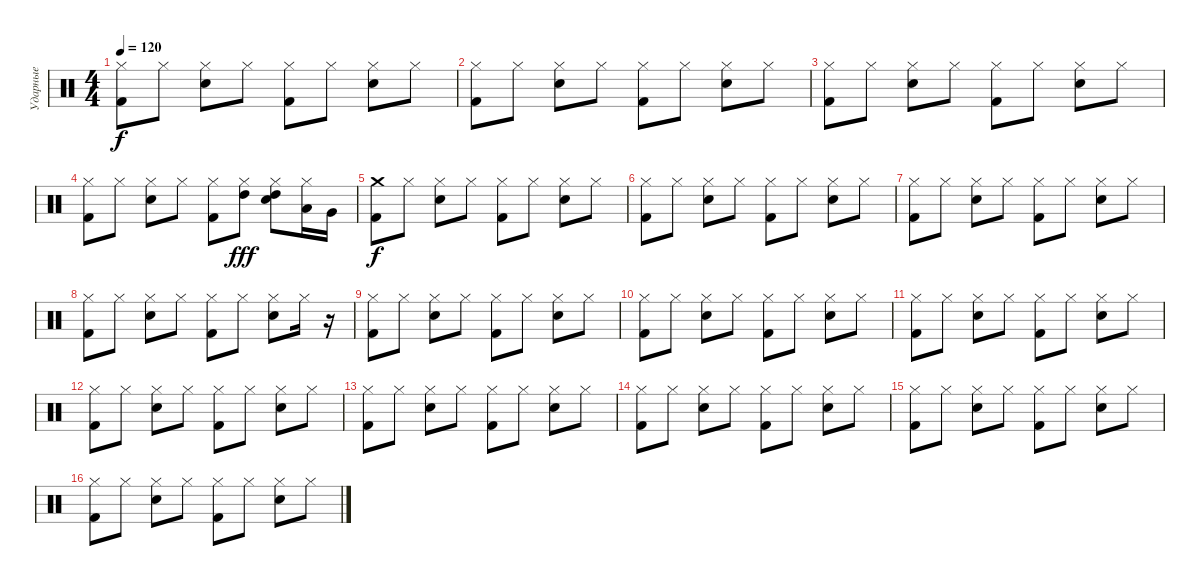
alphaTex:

\track ("Ударные" "Ударные") {instrument percussion}
\staff {score}
\articulation defaults
\ts (4 4)
\tempo 120
\clef neutral
\ks c
("Kick (hit) 2" "Hi-Hat (closed)").8{dy f} "Hi-Hat (closed)".8 ("Electric Snare (hit)" "Hi-Hat (closed)").8 "Hi-Hat (closed)".8 ("Kick (hit) 2" "Hi-Hat (closed)").8 "Hi-Hat (closed)".8 ("Electric Snare (hit)" "Hi-Hat (closed)").8 "Hi-Hat (closed)".8 |
("Kick (hit) 2" "Hi-Hat (closed)").8 "Hi-Hat (closed)".8 ("Electric Snare (hit)" "Hi-Hat (closed)").8 "Hi-Hat (closed)".8 ("Kick (hit) 2" "Hi-Hat (closed)").8 "Hi-Hat (closed)".8 ("Electric Snare (hit)" "Hi-Hat (closed)").8 "Hi-Hat (closed)".8 |
("Kick (hit) 2" "Hi-Hat (closed)").8 "Hi-Hat (closed)".8 ("Electric Snare (hit)" "Hi-Hat (closed)").8 "Hi-Hat (closed)".8 ("Kick (hit) 2" "Hi-Hat (closed)").8 "Hi-Hat (closed)".8 ("Electric Snare (hit)" "Hi-Hat (closed)").8 "Hi-Hat (closed)".8 |
("Kick (hit) 2" "Hi-Hat (closed)").8 "Hi-Hat (closed)".8 ("Electric Snare (hit)" "Hi-Hat (closed)").8 "Hi-Hat (closed)".8 ("Kick (hit) 2" "Hi-Hat (closed)").8 ("Hi-Hat (closed)" "High Tom (hit)").8{dy fff} ("Electric Snare (hit)" "Hi-Hat (closed)" "High Tom (hit)").8 ("Hi-Hat (closed)" "Low Tom (hit)").16 "Very Low Tom (hit)".16 |
("Kick (hit) 2" "Crash medium (hit)").8{dy f} "Hi-Hat (closed)".8 ("Electric Snare (hit)" "Hi-Hat (closed)").8 "Hi-Hat (closed)".8 ("Kick (hit) 2" "Hi-Hat (closed)").8 "Hi-Hat (closed)".8 ("Electric Snare (hit)" "Hi-Hat (closed)").8 "Hi-Hat (closed)".8 |
("Kick (hit) 2" "Hi-Hat (closed)").8 "Hi-Hat (closed)".8 ("Electric Snare (hit)" "Hi-Hat (closed)").8 "Hi-Hat (closed)".8 ("Kick (hit) 2" "Hi-Hat (closed)").8 "Hi-Hat (closed)".8 ("Electric Snare (hit)" "Hi-Hat (closed)").8 "Hi-Hat (closed)".8 |
("Kick (hit) 2" "Hi-Hat (closed)").8 "Hi-Hat (closed)".8 ("Electric Snare (hit)" "Hi-Hat (closed)").8 "Hi-Hat (closed)".8 ("Kick (hit) 2" "Hi-Hat (closed)").8 "Hi-Hat (closed)".8 ("Electric Snare (hit)" "Hi-Hat (closed)").8 "Hi-Hat (closed)".8 |
("Kick (hit) 2" "Hi-Hat (closed)").8 "Hi-Hat (closed)".8 ("Electric Snare (hit)" "Hi-Hat (closed)").8 "Hi-Hat (closed)".8 ("Kick (hit) 2" "Hi-Hat (closed)").8 "Hi-Hat (closed)".8 ("Electric Snare (hit)" "Hi-Hat (closed)").8 "Hi-Hat (closed)".16 r.16 |
("Kick (hit) 2" "Hi-Hat (closed)").8 "Hi-Hat (closed)".8 ("Electric Snare (hit)" "Hi-Hat (closed)").8 "Hi-Hat (closed)".8 ("Kick (hit) 2" "Hi-Hat (closed)").8 "Hi-Hat (closed)".8 ("Electric Snare (hit)" "Hi-Hat (closed)").8 "Hi-Hat (closed)".8 |
("Kick (hit) 2" "Hi-Hat (closed)").8 "Hi-Hat (closed)".8 ("Electric Snare (hit)" "Hi-Hat (closed)").8 "Hi-Hat (closed)".8 ("Kick (hit) 2" "Hi-Hat (closed)").8 "Hi-Hat (closed)".8 ("Electric Snare (hit)" "Hi-Hat (closed)").8 "Hi-Hat (closed)".8 |
("Kick (hit) 2" "Hi-Hat (closed)").8 "Hi-Hat (closed)".8 ("Electric Snare (hit)" "Hi-Hat (closed)").8 "Hi-Hat (closed)".8 ("Kick (hit) 2" "Hi-Hat (closed)").8 "Hi-Hat (closed)".8 ("Electric Snare (hit)" "Hi-Hat (closed)").8 "Hi-Hat (closed)".8 |
("Kick (hit) 2" "Hi-Hat (closed)").8 "Hi-Hat (closed)".8 ("Electric Snare (hit)" "Hi-Hat (closed)").8 "Hi-Hat (closed)".8 ("Kick (hit) 2" "Hi-Hat (closed)").8 "Hi-Hat (closed)".8 ("Electric Snare (hit)" "Hi-Hat (closed)").8 "Hi-Hat (closed)".8 |
("Kick (hit) 2" "Hi-Hat (closed)").8 "Hi-Hat (closed)".8 ("Electric Snare (hit)" "Hi-Hat (closed)").8 "Hi-Hat (closed)".8 ("Kick (hit) 2" "Hi-Hat (closed)").8 "Hi-Hat (closed)".8 ("Electric Snare (hit)" "Hi-Hat (closed)").8 "Hi-Hat (closed)".8 |
("Kick (hit) 2" "Hi-Hat (closed)").8 "Hi-Hat (closed)".8 ("Electric Snare (hit)" "Hi-Hat (closed)").8 "Hi-Hat (closed)".8 ("Kick (hit) 2" "Hi-Hat (closed)").8 "Hi-Hat (closed)".8 ("Electric Snare (hit)" "Hi-Hat (closed)").8 "Hi-Hat (closed)".8 |
("Kick (hit) 2" "Hi-Hat (closed)").8 "Hi-Hat (closed)".8 ("Electric Snare (hit)" "Hi-Hat (closed)").8 "Hi-Hat (closed)".8 ("Kick (hit) 2" "Hi-Hat (closed)").8 "Hi-Hat (closed)".8 ("Electric Snare (hit)" "Hi-Hat (closed)").8 "Hi-Hat (closed)".8 |
("Kick (hit) 2" "Hi-Hat (closed)").8 "Hi-Hat (closed)".8 ("Electric Snare (hit)" "Hi-Hat (closed)").8 "Hi-Hat (closed)".8 ("Kick (hit) 2" "Hi-Hat (closed)").8 "Hi-Hat (closed)".8 ("Electric Snare (hit)" "Hi-Hat (closed)").8 "Hi-Hat (closed)".8
